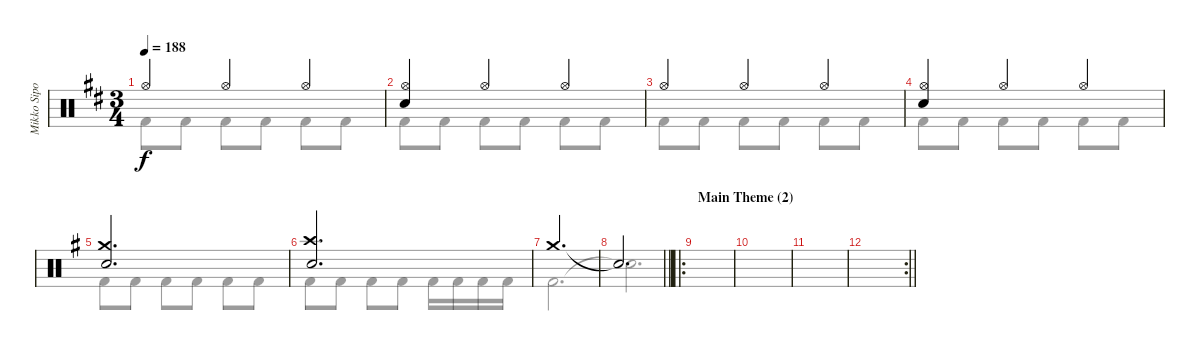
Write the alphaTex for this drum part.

\track ("Mikko Sipola (drums)" "Mikko Sipo") {instrument percussion}
\staff {score}
\articulation defaults
\voice
\ts (3 4)
\tempo 188
\clef neutral
\ks bminor "Hi-Hat (open)".4{dy f} "Hi-Hat (open)".4 "Hi-Hat (open)".4
|
("Hi-Hat (open)" "Electric Snare (hit)").4 "Hi-Hat (open)".4 "Hi-Hat (open)".4 |
"Hi-Hat (open)".4 "Hi-Hat (open)".4 "Hi-Hat (open)".4 |
("Hi-Hat (open)" "Electric Snare (hit)").4 "Hi-Hat (open)".4 "Hi-Hat (open)".4 |
\ks eminor
("Crash medium (hit)" "Electric Snare (hit)").2{d} |
("Crash high (hit)" "Electric Snare (hit)").2{d} |
"Crash medium (hit)".2{d} |
\barLineRight lightlight "Snare (hit)"{t}.2{d}
|
\ro
\section ("" "Main Theme (2)")
|
|
|
\rc 2
\barLineRight lightlight
|
|
|
|
\voice
\clef neutral
\ottava regular
\simile none
\ks bminor "Kick (hit) 2".8{dy f} "Kick (hit) 2".8 "Kick (hit) 2".8 "Kick (hit) 2".8 "Kick (hit) 2".8 "Kick (hit) 2".8
|
"Kick (hit) 2".8 "Kick (hit) 2".8 "Kick (hit) 2".8 "Kick (hit) 2".8 "Kick (hit) 2".8 "Kick (hit) 2".8 |
"Kick (hit) 2".8 "Kick (hit) 2".8 "Kick (hit) 2".8 "Kick (hit) 2".8 "Kick (hit) 2".8 "Kick (hit) 2".8 |
"Kick (hit) 2".8 "Kick (hit) 2".8 "Kick (hit) 2".8 "Kick (hit) 2".8 "Kick (hit) 2".8 "Kick (hit) 2".8 |
\ks eminor "Kick (hit) 2".8 "Kick (hit) 2".8 "Kick (hit) 2".8 "Kick (hit) 2".8 "Kick (hit) 2".8 "Kick (hit) 2".8
|
"Kick (hit) 2".8 "Kick (hit) 2".8 "Kick (hit) 2".8 "Kick (hit) 2".8 "Kick (hit) 2".16 "Kick (hit) 2".16 "Kick (hit) 2".16 "Kick (hit) 2".16 |
"Kick (hit) 2".2{d} |
\barLineRight lightlight "Snare (hit)"{t}.2{d}
|
|
|
|
\barLineRight lightlight
|
|
|
|
